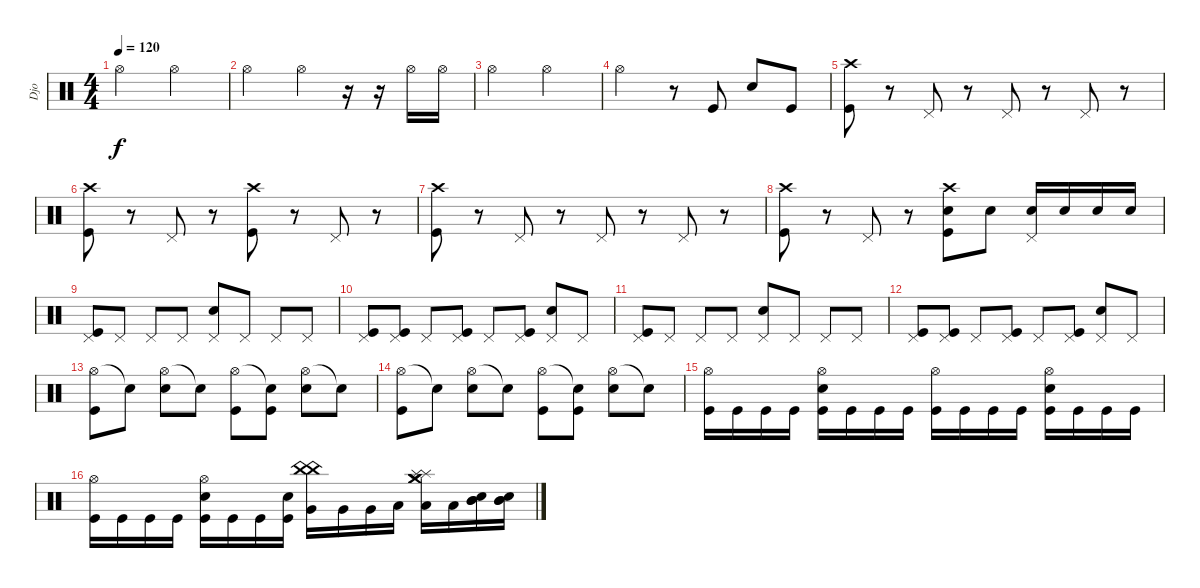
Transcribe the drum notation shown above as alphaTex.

\track ("Djo" "Djo") {instrument percussion}
\staff {score}
\articulation defaults
\ts (4 4)
\tempo 120
\clef neutral
\ks c "Hi-Hat (open)".2{dy f} "Hi-Hat (open)".2
|
"Hi-Hat (open)".2 "Hi-Hat (open)".4 r.16 r.16 "Hi-Hat (open)".16 "Hi-Hat (open)".16 |
"Hi-Hat (open)".2 "Hi-Hat (open)".2 |
"Hi-Hat (open)".2 r.8 "Kick (hit)".8 "Electric Snare (hit)".8 "Kick (hit)".8 |
("Crash high (hit)" "Kick (hit)").8 r.8 "Pedal Hi-Hat (hit)".8 r.8 "Pedal Hi-Hat (hit)".8 r.8 "Pedal Hi-Hat (hit)".8 r.8 |
("Crash high (hit)" "Kick (hit)").8 r.8 "Pedal Hi-Hat (hit)".8 r.8 ("Crash high (hit)" "Kick (hit)").8 r.8 "Pedal Hi-Hat (hit)".8 r.8 |
("Crash high (hit)" "Kick (hit)").8 r.8 "Pedal Hi-Hat (hit)".8 r.8 "Pedal Hi-Hat (hit)".8 r.8 "Pedal Hi-Hat (hit)".8 r.8 |
("Crash high (hit)" "Kick (hit)").8 r.8 "Pedal Hi-Hat (hit)".8 r.8 ("Crash high (hit)" "Electric Snare (hit)" "Kick (hit)").8 "Electric Snare (hit)".8 ("Pedal Hi-Hat (hit)" "Electric Snare (hit)").16 "Electric Snare (hit)".16 "Electric Snare (hit)".16 "Electric Snare (hit)".16 |
("Pedal Hi-Hat (hit)" "Kick (hit)").8 "Pedal Hi-Hat (hit)".8 "Pedal Hi-Hat (hit)".8 "Pedal Hi-Hat (hit)".8 ("Pedal Hi-Hat (hit)" "Electric Snare (hit)").8 "Pedal Hi-Hat (hit)".8 "Pedal Hi-Hat (hit)".8 "Pedal Hi-Hat (hit)".8 |
("Pedal Hi-Hat (hit)" "Kick (hit)").8 ("Pedal Hi-Hat (hit)" "Kick (hit)").8 "Pedal Hi-Hat (hit)".8 ("Pedal Hi-Hat (hit)" "Kick (hit)").8 "Pedal Hi-Hat (hit)".8 ("Pedal Hi-Hat (hit)" "Kick (hit)").8 ("Pedal Hi-Hat (hit)" "Electric Snare (hit)").8 "Pedal Hi-Hat (hit)".8 |
("Pedal Hi-Hat (hit)" "Kick (hit)").8 "Pedal Hi-Hat (hit)".8 "Pedal Hi-Hat (hit)".8 "Pedal Hi-Hat (hit)".8 ("Pedal Hi-Hat (hit)" "Electric Snare (hit)").8 "Pedal Hi-Hat (hit)".8 "Pedal Hi-Hat (hit)".8 "Pedal Hi-Hat (hit)".8 |
("Pedal Hi-Hat (hit)" "Kick (hit)").8 ("Pedal Hi-Hat (hit)" "Kick (hit)").8 "Pedal Hi-Hat (hit)".8 ("Pedal Hi-Hat (hit)" "Kick (hit)").8 "Pedal Hi-Hat (hit)".8 ("Pedal Hi-Hat (hit)" "Kick (hit)").8 ("Pedal Hi-Hat (hit)" "Electric Snare (hit)").8 "Pedal Hi-Hat (hit)".8 |
("Hi-Hat (open)" "Kick (hit)").8 "Snare (hit)"{t}.8 ("Hi-Hat (open)" "Electric Snare (hit)").8 "Snare (hit)"{t}.8 ("Hi-Hat (open)" "Kick (hit)").8 ("Snare (hit)"{t} "Kick (hit)").8 ("Hi-Hat (open)" "Electric Snare (hit)").8 "Snare (hit)"{t}.8 |
("Hi-Hat (open)" "Kick (hit)").8 "Snare (hit)"{t}.8 ("Hi-Hat (open)" "Electric Snare (hit)").8 "Snare (hit)"{t}.8 ("Hi-Hat (open)" "Kick (hit)").8 ("Snare (hit)"{t} "Kick (hit)").8 ("Hi-Hat (open)" "Electric Snare (hit)").8 "Snare (hit)"{t}.8 |
("Hi-Hat (open)" "Kick (hit)").16 "Kick (hit)".16 "Kick (hit)".16 "Kick (hit)".16 ("Hi-Hat (open)" "Electric Snare (hit)" "Kick (hit)").16 "Kick (hit)".16 "Kick (hit)".16 "Kick (hit)".16 ("Hi-Hat (open)" "Kick (hit)").16 "Kick (hit)".16 "Kick (hit)".16 "Kick (hit)".16 ("Hi-Hat (open)" "Electric Snare (hit)" "Kick (hit)").16 "Kick (hit)".16 "Kick (hit)".16 "Kick (hit)".16 |
("Hi-Hat (open)" "Kick (hit)").16 "Kick (hit)".16 "Kick (hit)".16 "Kick (hit)".16 ("Hi-Hat (open)" "Electric Snare (hit)" "Kick (hit)").16 "Kick (hit)".16 "Kick (hit)".16 ("Electric Snare (hit)" "Kick (hit)").16 ("China (hit)" "China (hit)" "Very Low Tom (hit)").16 "Very Low Tom (hit)".16 "Very Low Tom (hit)".16 "Low Tom (hit)".16 ("Splash (hit)" "Splash (hit)" "Crash medium (hit)" "Crash medium (hit)" "Low Tom (hit)").16 "Low Tom (hit)".16 ("Electric Snare (hit)" "Mid Tom (hit)" "Mid Tom (hit)").16 ("Electric Snare (hit)" "Mid Tom (hit)" "Mid Tom (hit)").16
